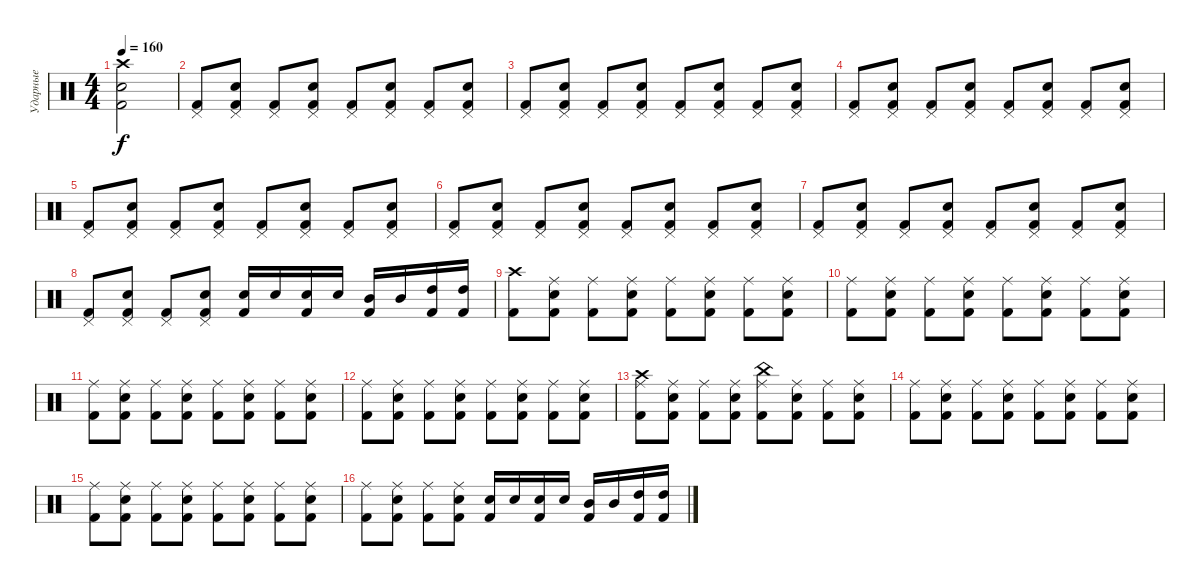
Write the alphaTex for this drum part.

\track ("Ударные" "Ударные") {instrument percussion}
\staff {score}
\articulation defaults
\ts (4 4)
\tempo 160
\clef neutral
\ks c
("Kick (hit) 2" "Snare (hit) 2" "Crash high (hit)").2{dy f} |
("Kick (hit) 2" "Pedal Hi-Hat (hit)").8 ("Kick (hit) 2" "Snare (hit) 2" "Pedal Hi-Hat (hit)").8 ("Kick (hit) 2" "Pedal Hi-Hat (hit)").8 ("Kick (hit) 2" "Snare (hit) 2" "Pedal Hi-Hat (hit)").8 ("Kick (hit) 2" "Pedal Hi-Hat (hit)").8 ("Kick (hit) 2" "Snare (hit) 2" "Pedal Hi-Hat (hit)").8 ("Kick (hit) 2" "Pedal Hi-Hat (hit)").8 ("Kick (hit) 2" "Snare (hit) 2" "Pedal Hi-Hat (hit)").8 |
("Kick (hit) 2" "Pedal Hi-Hat (hit)").8 ("Kick (hit) 2" "Snare (hit) 2" "Pedal Hi-Hat (hit)").8 ("Kick (hit) 2" "Pedal Hi-Hat (hit)").8 ("Kick (hit) 2" "Snare (hit) 2" "Pedal Hi-Hat (hit)").8 ("Kick (hit) 2" "Pedal Hi-Hat (hit)").8 ("Kick (hit) 2" "Snare (hit) 2" "Pedal Hi-Hat (hit)").8 ("Kick (hit) 2" "Pedal Hi-Hat (hit)").8 ("Kick (hit) 2" "Snare (hit) 2" "Pedal Hi-Hat (hit)").8 |
("Kick (hit) 2" "Pedal Hi-Hat (hit)").8 ("Kick (hit) 2" "Snare (hit) 2" "Pedal Hi-Hat (hit)").8 ("Kick (hit) 2" "Pedal Hi-Hat (hit)").8 ("Kick (hit) 2" "Snare (hit) 2" "Pedal Hi-Hat (hit)").8 ("Kick (hit) 2" "Pedal Hi-Hat (hit)").8 ("Kick (hit) 2" "Snare (hit) 2" "Pedal Hi-Hat (hit)").8 ("Kick (hit) 2" "Pedal Hi-Hat (hit)").8 ("Kick (hit) 2" "Snare (hit) 2" "Pedal Hi-Hat (hit)").8 |
("Kick (hit) 2" "Pedal Hi-Hat (hit)").8 ("Kick (hit) 2" "Snare (hit) 2" "Pedal Hi-Hat (hit)").8 ("Kick (hit) 2" "Pedal Hi-Hat (hit)").8 ("Kick (hit) 2" "Snare (hit) 2" "Pedal Hi-Hat (hit)").8 ("Kick (hit) 2" "Pedal Hi-Hat (hit)").8 ("Kick (hit) 2" "Snare (hit) 2" "Pedal Hi-Hat (hit)").8 ("Kick (hit) 2" "Pedal Hi-Hat (hit)").8 ("Kick (hit) 2" "Snare (hit) 2" "Pedal Hi-Hat (hit)").8 |
("Kick (hit) 2" "Pedal Hi-Hat (hit)").8 ("Kick (hit) 2" "Snare (hit) 2" "Pedal Hi-Hat (hit)").8 ("Kick (hit) 2" "Pedal Hi-Hat (hit)").8 ("Kick (hit) 2" "Snare (hit) 2" "Pedal Hi-Hat (hit)").8 ("Kick (hit) 2" "Pedal Hi-Hat (hit)").8 ("Kick (hit) 2" "Snare (hit) 2" "Pedal Hi-Hat (hit)").8 ("Kick (hit) 2" "Pedal Hi-Hat (hit)").8 ("Kick (hit) 2" "Snare (hit) 2" "Pedal Hi-Hat (hit)").8 |
("Kick (hit) 2" "Pedal Hi-Hat (hit)").8 ("Kick (hit) 2" "Snare (hit) 2" "Pedal Hi-Hat (hit)").8 ("Kick (hit) 2" "Pedal Hi-Hat (hit)").8 ("Kick (hit) 2" "Snare (hit) 2" "Pedal Hi-Hat (hit)").8 ("Kick (hit) 2" "Pedal Hi-Hat (hit)").8 ("Kick (hit) 2" "Snare (hit) 2" "Pedal Hi-Hat (hit)").8 ("Kick (hit) 2" "Pedal Hi-Hat (hit)").8 ("Kick (hit) 2" "Snare (hit) 2" "Pedal Hi-Hat (hit)").8 |
("Kick (hit) 2" "Pedal Hi-Hat (hit)").8 ("Kick (hit) 2" "Snare (hit) 2" "Pedal Hi-Hat (hit)").8 ("Kick (hit) 2" "Pedal Hi-Hat (hit)").8 ("Kick (hit) 2" "Snare (hit) 2" "Pedal Hi-Hat (hit)").8 ("Kick (hit) 2" "Snare (hit) 2").16 "Snare (hit) 2".16 ("Kick (hit) 2" "Snare (hit) 2").16 "Snare (hit) 2".16 ("Kick (hit) 2" "Mid Tom (hit)").16 "Mid Tom (hit)".16 ("Kick (hit) 2" "High Tom (hit)").16 ("Kick (hit) 2" "High Tom (hit)").16 |
("Kick (hit) 2" "Crash high (hit)").8 ("Kick (hit) 2" "Snare (hit) 2" "Ride (middle)").8 ("Kick (hit) 2" "Ride (middle)").8 ("Kick (hit) 2" "Snare (hit) 2" "Ride (middle)").8 ("Kick (hit) 2" "Ride (middle)").8 ("Kick (hit) 2" "Snare (hit) 2" "Ride (middle)").8 ("Kick (hit) 2" "Ride (middle)").8 ("Kick (hit) 2" "Snare (hit) 2" "Ride (middle)").8 |
("Kick (hit) 2" "Ride (middle)").8 ("Kick (hit) 2" "Snare (hit) 2" "Ride (middle)").8 ("Kick (hit) 2" "Ride (middle)").8 ("Kick (hit) 2" "Snare (hit) 2" "Ride (middle)").8 ("Kick (hit) 2" "Ride (middle)").8 ("Kick (hit) 2" "Snare (hit) 2" "Ride (middle)").8 ("Kick (hit) 2" "Ride (middle)").8 ("Kick (hit) 2" "Snare (hit) 2" "Ride (middle)").8 |
("Kick (hit) 2" "Ride (middle)").8 ("Kick (hit) 2" "Snare (hit) 2" "Ride (middle)").8 ("Kick (hit) 2" "Ride (middle)").8 ("Kick (hit) 2" "Snare (hit) 2" "Ride (middle)").8 ("Kick (hit) 2" "Ride (middle)").8 ("Kick (hit) 2" "Snare (hit) 2" "Ride (middle)").8 ("Kick (hit) 2" "Ride (middle)").8 ("Kick (hit) 2" "Snare (hit) 2" "Ride (middle)").8 |
("Kick (hit) 2" "Ride (middle)").8 ("Kick (hit) 2" "Snare (hit) 2" "Ride (middle)").8 ("Kick (hit) 2" "Ride (middle)").8 ("Kick (hit) 2" "Snare (hit) 2" "Ride (middle)").8 ("Kick (hit) 2" "Ride (middle)").8 ("Kick (hit) 2" "Snare (hit) 2" "Ride (middle)").8 ("Kick (hit) 2" "Ride (middle)").8 ("Kick (hit) 2" "Snare (hit) 2" "Ride (middle)").8 |
("Kick (hit) 2" "Ride (middle)" "Crash high (hit)").8 ("Kick (hit) 2" "Snare (hit) 2" "Ride (middle)").8 ("Kick (hit) 2" "Ride (middle)").8 ("Kick (hit) 2" "Snare (hit) 2" "Ride (middle)").8 ("Kick (hit) 2" "Ride (middle)" "China (hit)").8 ("Kick (hit) 2" "Snare (hit) 2" "Ride (middle)").8 ("Kick (hit) 2" "Ride (middle)").8 ("Kick (hit) 2" "Snare (hit) 2" "Ride (middle)").8 |
("Kick (hit) 2" "Ride (middle)").8 ("Kick (hit) 2" "Snare (hit) 2" "Ride (middle)").8 ("Kick (hit) 2" "Ride (middle)").8 ("Kick (hit) 2" "Snare (hit) 2" "Ride (middle)").8 ("Kick (hit) 2" "Ride (middle)").8 ("Kick (hit) 2" "Snare (hit) 2" "Ride (middle)").8 ("Kick (hit) 2" "Ride (middle)").8 ("Kick (hit) 2" "Snare (hit) 2" "Ride (middle)").8 |
("Kick (hit) 2" "Ride (middle)").8 ("Kick (hit) 2" "Snare (hit) 2" "Ride (middle)").8 ("Kick (hit) 2" "Ride (middle)").8 ("Kick (hit) 2" "Snare (hit) 2" "Ride (middle)").8 ("Kick (hit) 2" "Ride (middle)").8 ("Kick (hit) 2" "Snare (hit) 2" "Ride (middle)").8 ("Kick (hit) 2" "Ride (middle)").8 ("Kick (hit) 2" "Snare (hit) 2" "Ride (middle)").8 |
("Kick (hit) 2" "Ride (middle)").8 ("Kick (hit) 2" "Snare (hit) 2" "Ride (middle)").8 ("Kick (hit) 2" "Ride (middle)").8 ("Kick (hit) 2" "Snare (hit) 2" "Ride (middle)").8 ("Kick (hit) 2" "Snare (hit) 2").16 "Snare (hit) 2".16 ("Kick (hit) 2" "Snare (hit) 2").16 "Snare (hit) 2".16 ("Kick (hit) 2" "Mid Tom (hit)").16 "Mid Tom (hit)".16 ("Kick (hit) 2" "High Tom (hit)").16 ("Kick (hit) 2" "High Tom (hit)").16
